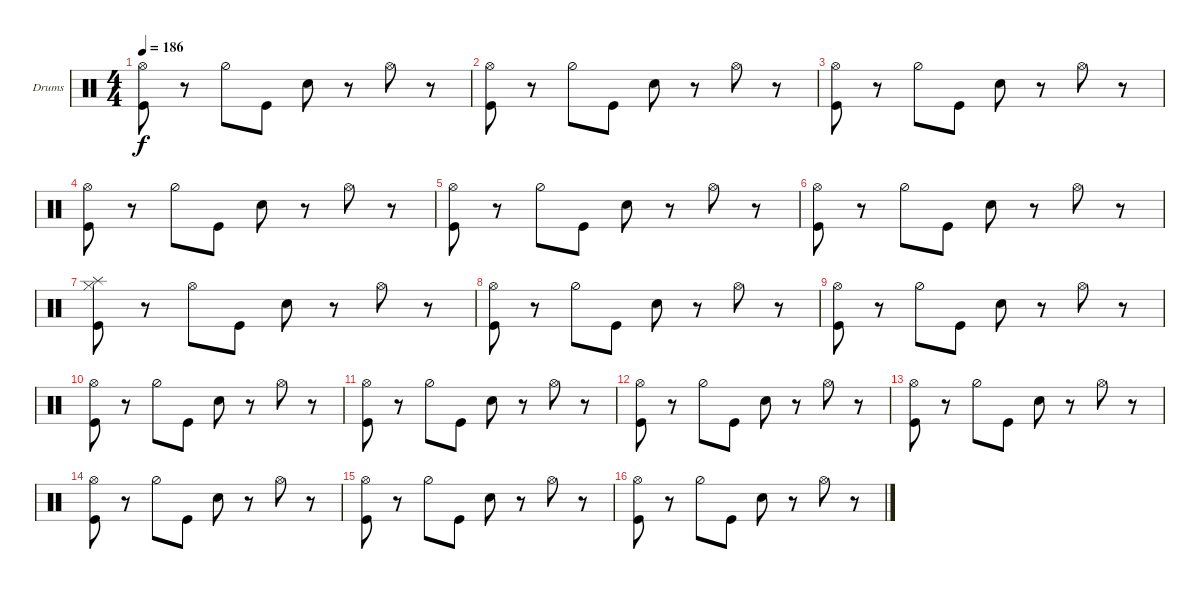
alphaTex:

\defaultSystemsLayout 4
\bracketExtendMode groupsimilarinstruments
\firstSystemTrackNameOrientation horizontal
\otherSystemsTrackNameOrientation horizontal
\track ("Drumkit" "Drums") {instrument percussion}
\staff {score}
\articulation defaults
\ts (4 4)
\tempo 186
\clef neutral
\ks c
("Hi-Hat (open)" "Kick (hit)").8{dy f} r.8 "Hi-Hat (half)".8 "Kick (hit)".8 "Snare (hit) 2".8 r.8 "Hi-Hat (open)".8 r.8 |
("Hi-Hat (open)" "Kick (hit)").8 r.8 "Hi-Hat (half)".8 "Kick (hit)".8 "Snare (hit) 2".8 r.8 "Hi-Hat (open)".8 r.8 |
("Hi-Hat (open)" "Kick (hit)").8 r.8 "Hi-Hat (half)".8 "Kick (hit)".8 "Snare (hit) 2".8 r.8 "Hi-Hat (open)".8 r.8 |
("Hi-Hat (open)" "Kick (hit)").8 r.8 "Hi-Hat (half)".8 "Kick (hit)".8 "Snare (hit) 2".8 r.8 "Hi-Hat (open)".8 r.8 |
("Hi-Hat (open)" "Kick (hit)").8 r.8 "Hi-Hat (half)".8 "Kick (hit)".8 "Snare (hit) 2".8 r.8 "Hi-Hat (open)".8 r.8 |
("Hi-Hat (open)" "Kick (hit)").8 r.8 "Hi-Hat (half)".8 "Kick (hit)".8 "Snare (hit) 2".8 r.8 "Hi-Hat (open)".8 r.8 |
("Hi-Hat (closed)" "Kick (hit)" "Splash (hit)").8 r.8 "Hi-Hat (open)".8 "Kick (hit)".8 "Snare (hit) 2".8 r.8 "Hi-Hat (open)".8 r.8 |
("Hi-Hat (open)" "Kick (hit)").8 r.8 "Hi-Hat (half)".8 "Kick (hit)".8 "Snare (hit) 2".8 r.8 "Hi-Hat (open)".8 r.8 |
("Hi-Hat (open)" "Kick (hit)").8 r.8 "Hi-Hat (half)".8 "Kick (hit)".8 "Snare (hit) 2".8 r.8 "Hi-Hat (open)".8 r.8 |
("Hi-Hat (open)" "Kick (hit)").8 r.8 "Hi-Hat (half)".8 "Kick (hit)".8 "Snare (hit) 2".8 r.8 "Hi-Hat (open)".8 r.8 |
("Hi-Hat (open)" "Kick (hit)").8 r.8 "Hi-Hat (half)".8 "Kick (hit)".8 "Snare (hit) 2".8 r.8 "Hi-Hat (open)".8 r.8 |
("Hi-Hat (open)" "Kick (hit)").8 r.8 "Hi-Hat (half)".8 "Kick (hit)".8 "Snare (hit) 2".8 r.8 "Hi-Hat (open)".8 r.8 |
("Hi-Hat (open)" "Kick (hit)").8 r.8 "Hi-Hat (half)".8 "Kick (hit)".8 "Snare (hit) 2".8 r.8 "Hi-Hat (open)".8 r.8 |
("Hi-Hat (open)" "Kick (hit)").8 r.8 "Hi-Hat (half)".8 "Kick (hit)".8 "Snare (hit) 2".8 r.8 "Hi-Hat (open)".8 r.8 |
("Hi-Hat (open)" "Kick (hit)").8 r.8 "Hi-Hat (half)".8 "Kick (hit)".8 "Snare (hit) 2".8 r.8 "Hi-Hat (open)".8 r.8 |
("Hi-Hat (open)" "Kick (hit)").8 r.8 "Hi-Hat (half)".8 "Kick (hit)".8 "Snare (hit) 2".8 r.8 "Hi-Hat (open)".8 r.8
